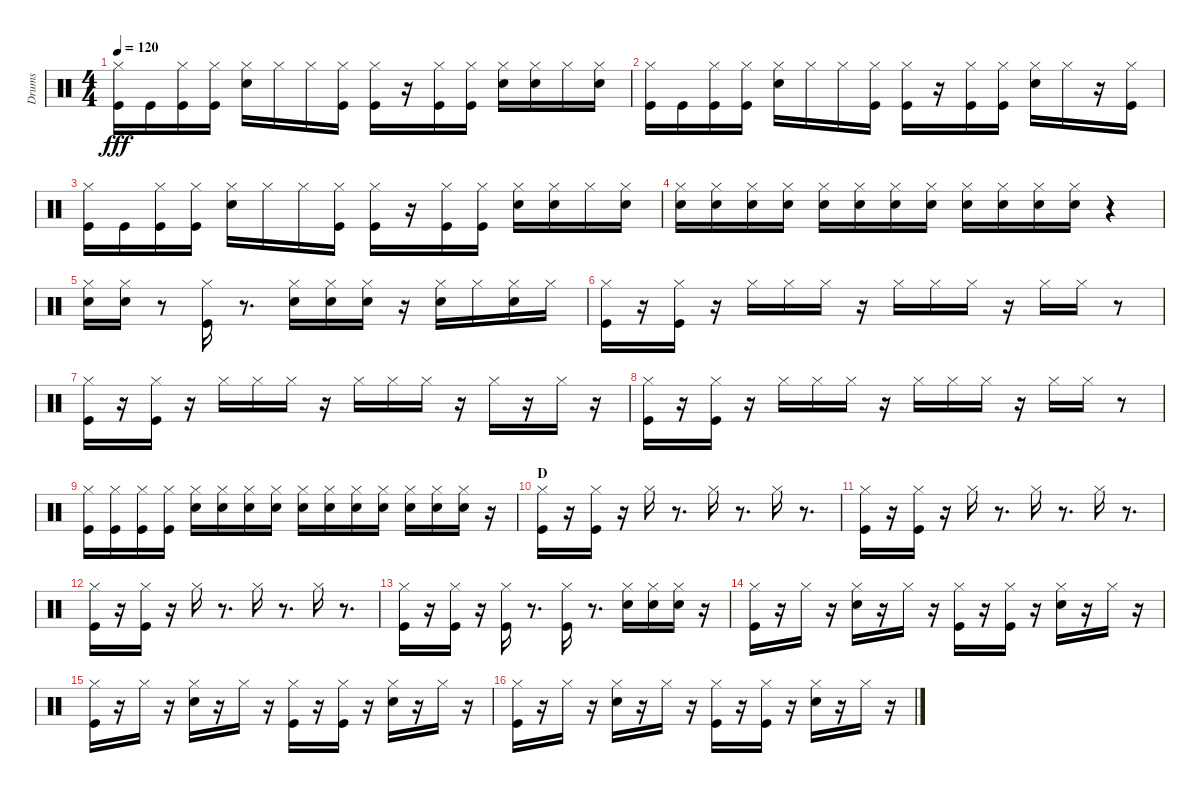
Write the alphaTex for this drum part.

\track ("Drums" "Drums") {instrument percussion}
\staff {score}
\articulation defaults
\ts (4 4)
\tempo 120
\clef neutral
\ks c
("Kick (hit)" "Hi-Hat (closed)").16{dy fff} "Kick (hit)".16 ("Kick (hit)" "Hi-Hat (closed)").16 ("Kick (hit)" "Hi-Hat (closed)").16 ("Snare (hit) 2" "Hi-Hat (closed)").16 "Hi-Hat (closed)".16 "Hi-Hat (closed)".16 ("Kick (hit)" "Hi-Hat (closed)").16 ("Kick (hit)" "Hi-Hat (closed)").16 r.16 ("Kick (hit)" "Hi-Hat (closed)").16 ("Kick (hit)" "Hi-Hat (closed)").16 ("Snare (hit) 2" "Hi-Hat (closed)").16 ("Snare (hit) 2" "Hi-Hat (closed)").16 "Hi-Hat (closed)".16 ("Snare (hit) 2" "Hi-Hat (closed)").16 |
("Kick (hit)" "Hi-Hat (closed)").16 "Kick (hit)".16 ("Kick (hit)" "Hi-Hat (closed)").16 ("Kick (hit)" "Hi-Hat (closed)").16 ("Snare (hit) 2" "Hi-Hat (closed)").16 "Hi-Hat (closed)".16 "Hi-Hat (closed)".16 ("Kick (hit)" "Hi-Hat (closed)").16 ("Kick (hit)" "Hi-Hat (closed)").16 r.16 ("Kick (hit)" "Hi-Hat (closed)").16 ("Kick (hit)" "Hi-Hat (closed)").16 ("Snare (hit) 2" "Hi-Hat (closed)").16 "Hi-Hat (closed)".16 r.16 ("Kick (hit)" "Hi-Hat (closed)").16 |
("Kick (hit)" "Hi-Hat (closed)").16 "Kick (hit)".16 ("Kick (hit)" "Hi-Hat (closed)").16 ("Kick (hit)" "Hi-Hat (closed)").16 ("Snare (hit) 2" "Hi-Hat (closed)").16 "Hi-Hat (closed)".16 "Hi-Hat (closed)".16 ("Kick (hit)" "Hi-Hat (closed)").16 ("Kick (hit)" "Hi-Hat (closed)").16 r.16 ("Kick (hit)" "Hi-Hat (closed)").16 ("Kick (hit)" "Hi-Hat (closed)").16 ("Snare (hit) 2" "Hi-Hat (closed)").16 ("Snare (hit) 2" "Hi-Hat (closed)").16 "Hi-Hat (closed)".16 ("Snare (hit) 2" "Hi-Hat (closed)").16 |
("Snare (hit) 2" "Hi-Hat (closed)").16 ("Snare (hit) 2" "Hi-Hat (closed)").16 ("Snare (hit) 2" "Hi-Hat (closed)").16 ("Snare (hit) 2" "Hi-Hat (closed)").16 ("Snare (hit) 2" "Hi-Hat (closed)").16 ("Snare (hit) 2" "Hi-Hat (closed)").16 ("Snare (hit) 2" "Hi-Hat (closed)").16 ("Snare (hit) 2" "Hi-Hat (closed)").16 ("Snare (hit) 2" "Hi-Hat (closed)").16 ("Snare (hit) 2" "Hi-Hat (closed)").16 ("Snare (hit) 2" "Hi-Hat (closed)").16 ("Snare (hit) 2" "Hi-Hat (closed)").16 r.4 |
("Snare (hit) 2" "Hi-Hat (closed)").16 ("Snare (hit) 2" "Hi-Hat (closed)").16 r.8 ("Kick (hit)" "Hi-Hat (closed)").16 r.8{d} ("Snare (hit) 2" "Hi-Hat (closed)").16 ("Snare (hit) 2" "Hi-Hat (closed)").16 ("Snare (hit) 2" "Hi-Hat (closed)").16 r.16 ("Snare (hit) 2" "Hi-Hat (closed)").16 "Hi-Hat (closed)".16 ("Snare (hit) 2" "Hi-Hat (closed)").16 "Hi-Hat (closed)".16 |
("Kick (hit)" "Hi-Hat (closed)").16 r.16 ("Kick (hit)" "Hi-Hat (closed)").16 r.16 "Hi-Hat (closed)".16 "Hi-Hat (closed)".16 "Hi-Hat (closed)".16 r.16 "Hi-Hat (closed)".16 "Hi-Hat (closed)".16 "Hi-Hat (closed)".16 r.16 "Hi-Hat (closed)".16 "Hi-Hat (closed)".16 r.8 |
("Kick (hit)" "Hi-Hat (closed)").16 r.16 ("Kick (hit)" "Hi-Hat (closed)").16 r.16 "Hi-Hat (closed)".16 "Hi-Hat (closed)".16 "Hi-Hat (closed)".16 r.16 "Hi-Hat (closed)".16 "Hi-Hat (closed)".16 "Hi-Hat (closed)".16 r.16 "Hi-Hat (closed)".16 r.16 "Hi-Hat (closed)".16 r.16 |
("Kick (hit)" "Hi-Hat (closed)").16 r.16 ("Kick (hit)" "Hi-Hat (closed)").16 r.16 "Hi-Hat (closed)".16 "Hi-Hat (closed)".16 "Hi-Hat (closed)".16 r.16 "Hi-Hat (closed)".16 "Hi-Hat (closed)".16 "Hi-Hat (closed)".16 r.16 "Hi-Hat (closed)".16 "Hi-Hat (closed)".16 r.8 |
("Kick (hit)" "Hi-Hat (closed)").16 ("Kick (hit)" "Hi-Hat (closed)").16 ("Kick (hit)" "Hi-Hat (closed)").16 ("Kick (hit)" "Hi-Hat (closed)").16 ("Snare (hit) 2" "Hi-Hat (closed)").16 ("Snare (hit) 2" "Hi-Hat (closed)").16 ("Snare (hit) 2" "Hi-Hat (closed)").16 ("Snare (hit) 2" "Hi-Hat (closed)").16 ("Snare (hit) 2" "Hi-Hat (closed)").16 ("Snare (hit) 2" "Hi-Hat (closed)").16 ("Snare (hit) 2" "Hi-Hat (closed)").16 ("Snare (hit) 2" "Hi-Hat (closed)").16 ("Snare (hit) 2" "Hi-Hat (closed)").16 ("Snare (hit) 2" "Hi-Hat (closed)").16 ("Snare (hit) 2" "Hi-Hat (closed)").16 r.16 |
\section ("" "D")
("Kick (hit)" "Hi-Hat (closed)").16 r.16 ("Kick (hit)" "Hi-Hat (closed)").16 r.16 "Hi-Hat (closed)".16 r.8{d} "Hi-Hat (closed)".16 r.8{d} "Hi-Hat (closed)".16 r.8{d} |
("Kick (hit)" "Hi-Hat (closed)").16 r.16 ("Kick (hit)" "Hi-Hat (closed)").16 r.16 "Hi-Hat (closed)".16 r.8{d} "Hi-Hat (closed)".16 r.8{d} "Hi-Hat (closed)".16 r.8{d} |
("Kick (hit)" "Hi-Hat (closed)").16 r.16 ("Kick (hit)" "Hi-Hat (closed)").16 r.16 "Hi-Hat (closed)".16 r.8{d} "Hi-Hat (closed)".16 r.8{d} "Hi-Hat (closed)".16 r.8{d} |
("Kick (hit)" "Hi-Hat (closed)").16 r.16 ("Kick (hit)" "Hi-Hat (closed)").16 r.16 ("Kick (hit)" "Hi-Hat (closed)").16 r.8{d} ("Kick (hit)" "Hi-Hat (closed)").16 r.8{d} ("Snare (hit) 2" "Hi-Hat (closed)").16 ("Snare (hit) 2" "Hi-Hat (closed)").16 ("Snare (hit) 2" "Hi-Hat (closed)").16 r.16 |
("Kick (hit)" "Hi-Hat (closed)").16 r.16 "Hi-Hat (closed)".16 r.16 ("Snare (hit) 2" "Hi-Hat (closed)").16 r.16 "Hi-Hat (closed)".16 r.16 ("Kick (hit)" "Hi-Hat (closed)").16 r.16 ("Kick (hit)" "Hi-Hat (closed)").16 r.16 ("Snare (hit) 2" "Hi-Hat (closed)").16 r.16 "Hi-Hat (closed)".16 r.16 |
("Kick (hit)" "Hi-Hat (closed)").16 r.16 "Hi-Hat (closed)".16 r.16 ("Snare (hit) 2" "Hi-Hat (closed)").16 r.16 "Hi-Hat (closed)".16 r.16 ("Kick (hit)" "Hi-Hat (closed)").16 r.16 ("Kick (hit)" "Hi-Hat (closed)").16 r.16 ("Snare (hit) 2" "Hi-Hat (closed)").16 r.16 "Hi-Hat (closed)".16 r.16 |
("Kick (hit)" "Hi-Hat (closed)").16 r.16 "Hi-Hat (closed)".16 r.16 ("Snare (hit) 2" "Hi-Hat (closed)").16 r.16 "Hi-Hat (closed)".16 r.16 ("Kick (hit)" "Hi-Hat (closed)").16 r.16 ("Kick (hit)" "Hi-Hat (closed)").16 r.16 ("Snare (hit) 2" "Hi-Hat (closed)").16 r.16 "Hi-Hat (closed)".16 r.16
